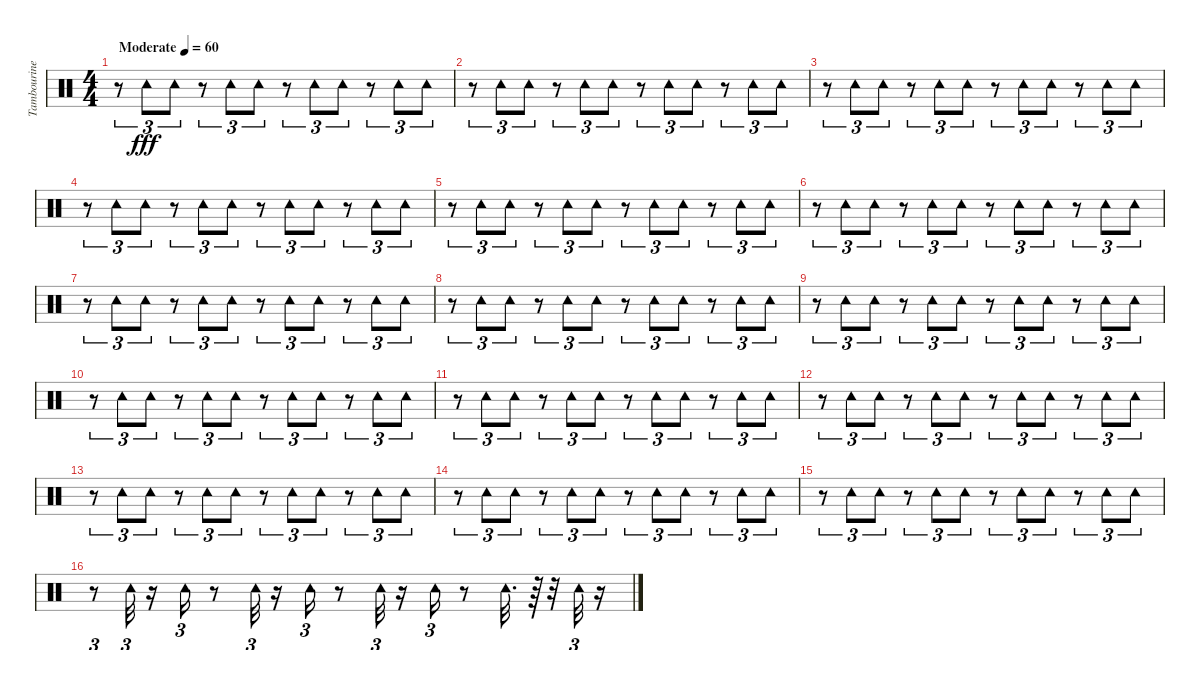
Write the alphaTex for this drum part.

\track ("Tambourine" "Tambourine") {instrument percussion}
\staff {score}
\articulation defaults
\ts (4 4)
\tempo (60 "Moderate")
\clef neutral
\ks c
r.8{tu (3 2) dy fff} "Tambourine (hit)".8{tu (3 2)} "Tambourine (hit)".8{tu (3 2)} r.8{tu (3 2)} "Tambourine (hit)".8{tu (3 2)} "Tambourine (hit)".8{tu (3 2)} r.8{tu (3 2)} "Tambourine (hit)".8{tu (3 2)} "Tambourine (hit)".8{tu (3 2)} r.8{tu (3 2)} "Tambourine (hit)".8{tu (3 2)} "Tambourine (hit)".8{tu (3 2)} |
r.8{tu (3 2)} "Tambourine (hit)".8{tu (3 2)} "Tambourine (hit)".8{tu (3 2)} r.8{tu (3 2)} "Tambourine (hit)".8{tu (3 2)} "Tambourine (hit)".8{tu (3 2)} r.8{tu (3 2)} "Tambourine (hit)".8{tu (3 2)} "Tambourine (hit)".8{tu (3 2)} r.8{tu (3 2)} "Tambourine (hit)".8{tu (3 2)} "Tambourine (hit)".8{tu (3 2)} |
r.8{tu (3 2)} "Tambourine (hit)".8{tu (3 2)} "Tambourine (hit)".8{tu (3 2)} r.8{tu (3 2)} "Tambourine (hit)".8{tu (3 2)} "Tambourine (hit)".8{tu (3 2)} r.8{tu (3 2)} "Tambourine (hit)".8{tu (3 2)} "Tambourine (hit)".8{tu (3 2)} r.8{tu (3 2)} "Tambourine (hit)".8{tu (3 2)} "Tambourine (hit)".8{tu (3 2)} |
r.8{tu (3 2)} "Tambourine (hit)".8{tu (3 2)} "Tambourine (hit)".8{tu (3 2)} r.8{tu (3 2)} "Tambourine (hit)".8{tu (3 2)} "Tambourine (hit)".8{tu (3 2)} r.8{tu (3 2)} "Tambourine (hit)".8{tu (3 2)} "Tambourine (hit)".8{tu (3 2)} r.8{tu (3 2)} "Tambourine (hit)".8{tu (3 2)} "Tambourine (hit)".8{tu (3 2)} |
r.8{tu (3 2)} "Tambourine (hit)".8{tu (3 2)} "Tambourine (hit)".8{tu (3 2)} r.8{tu (3 2)} "Tambourine (hit)".8{tu (3 2)} "Tambourine (hit)".8{tu (3 2)} r.8{tu (3 2)} "Tambourine (hit)".8{tu (3 2)} "Tambourine (hit)".8{tu (3 2)} r.8{tu (3 2)} "Tambourine (hit)".8{tu (3 2)} "Tambourine (hit)".8{tu (3 2)} |
r.8{tu (3 2)} "Tambourine (hit)".8{tu (3 2)} "Tambourine (hit)".8{tu (3 2)} r.8{tu (3 2)} "Tambourine (hit)".8{tu (3 2)} "Tambourine (hit)".8{tu (3 2)} r.8{tu (3 2)} "Tambourine (hit)".8{tu (3 2)} "Tambourine (hit)".8{tu (3 2)} r.8{tu (3 2)} "Tambourine (hit)".8{tu (3 2)} "Tambourine (hit)".8{tu (3 2)} |
r.8{tu (3 2)} "Tambourine (hit)".8{tu (3 2)} "Tambourine (hit)".8{tu (3 2)} r.8{tu (3 2)} "Tambourine (hit)".8{tu (3 2)} "Tambourine (hit)".8{tu (3 2)} r.8{tu (3 2)} "Tambourine (hit)".8{tu (3 2)} "Tambourine (hit)".8{tu (3 2)} r.8{tu (3 2)} "Tambourine (hit)".8{tu (3 2)} "Tambourine (hit)".8{tu (3 2)} |
r.8{tu (3 2)} "Tambourine (hit)".8{tu (3 2)} "Tambourine (hit)".8{tu (3 2)} r.8{tu (3 2)} "Tambourine (hit)".8{tu (3 2)} "Tambourine (hit)".8{tu (3 2)} r.8{tu (3 2)} "Tambourine (hit)".8{tu (3 2)} "Tambourine (hit)".8{tu (3 2)} r.8{tu (3 2)} "Tambourine (hit)".8{tu (3 2)} "Tambourine (hit)".8{tu (3 2)} |
r.8{tu (3 2)} "Tambourine (hit)".8{tu (3 2)} "Tambourine (hit)".8{tu (3 2)} r.8{tu (3 2)} "Tambourine (hit)".8{tu (3 2)} "Tambourine (hit)".8{tu (3 2)} r.8{tu (3 2)} "Tambourine (hit)".8{tu (3 2)} "Tambourine (hit)".8{tu (3 2)} r.8{tu (3 2)} "Tambourine (hit)".8{tu (3 2)} "Tambourine (hit)".8{tu (3 2)} |
r.8{tu (3 2)} "Tambourine (hit)".8{tu (3 2)} "Tambourine (hit)".8{tu (3 2)} r.8{tu (3 2)} "Tambourine (hit)".8{tu (3 2)} "Tambourine (hit)".8{tu (3 2)} r.8{tu (3 2)} "Tambourine (hit)".8{tu (3 2)} "Tambourine (hit)".8{tu (3 2)} r.8{tu (3 2)} "Tambourine (hit)".8{tu (3 2)} "Tambourine (hit)".8{tu (3 2)} |
r.8{tu (3 2)} "Tambourine (hit)".8{tu (3 2)} "Tambourine (hit)".8{tu (3 2)} r.8{tu (3 2)} "Tambourine (hit)".8{tu (3 2)} "Tambourine (hit)".8{tu (3 2)} r.8{tu (3 2)} "Tambourine (hit)".8{tu (3 2)} "Tambourine (hit)".8{tu (3 2)} r.8{tu (3 2)} "Tambourine (hit)".8{tu (3 2)} "Tambourine (hit)".8{tu (3 2)} |
r.8{tu (3 2)} "Tambourine (hit)".8{tu (3 2)} "Tambourine (hit)".8{tu (3 2)} r.8{tu (3 2)} "Tambourine (hit)".8{tu (3 2)} "Tambourine (hit)".8{tu (3 2)} r.8{tu (3 2)} "Tambourine (hit)".8{tu (3 2)} "Tambourine (hit)".8{tu (3 2)} r.8{tu (3 2)} "Tambourine (hit)".8{tu (3 2)} "Tambourine (hit)".8{tu (3 2)} |
r.8{tu (3 2)} "Tambourine (hit)".8{tu (3 2)} "Tambourine (hit)".8{tu (3 2)} r.8{tu (3 2)} "Tambourine (hit)".8{tu (3 2)} "Tambourine (hit)".8{tu (3 2)} r.8{tu (3 2)} "Tambourine (hit)".8{tu (3 2)} "Tambourine (hit)".8{tu (3 2)} r.8{tu (3 2)} "Tambourine (hit)".8{tu (3 2)} "Tambourine (hit)".8{tu (3 2)} |
r.8{tu (3 2)} "Tambourine (hit)".8{tu (3 2)} "Tambourine (hit)".8{tu (3 2)} r.8{tu (3 2)} "Tambourine (hit)".8{tu (3 2)} "Tambourine (hit)".8{tu (3 2)} r.8{tu (3 2)} "Tambourine (hit)".8{tu (3 2)} "Tambourine (hit)".8{tu (3 2)} r.8{tu (3 2)} "Tambourine (hit)".8{tu (3 2)} "Tambourine (hit)".8{tu (3 2)} |
r.8{tu (3 2)} "Tambourine (hit)".8{tu (3 2)} "Tambourine (hit)".8{tu (3 2)} r.8{tu (3 2)} "Tambourine (hit)".8{tu (3 2)} "Tambourine (hit)".8{tu (3 2)} r.8{tu (3 2)} "Tambourine (hit)".8{tu (3 2)} "Tambourine (hit)".8{tu (3 2)} r.8{tu (3 2)} "Tambourine (hit)".8{tu (3 2)} "Tambourine (hit)".8{tu (3 2)} |
r.8{tu (3 2)} "Tambourine (hit)".32{tu (3 2)} r.16 "Tambourine (hit)".16{tu (3 2)} r.8 "Tambourine (hit)".32{tu (3 2)} r.16 "Tambourine (hit)".16{tu (3 2)} r.8 "Tambourine (hit)".32{tu (3 2)} r.16 "Tambourine (hit)".16{tu (3 2)} r.8 "Tambourine (hit)".32{d} r.64 r.32 "Tambourine (hit)".32{tu (3 2)} r.16
